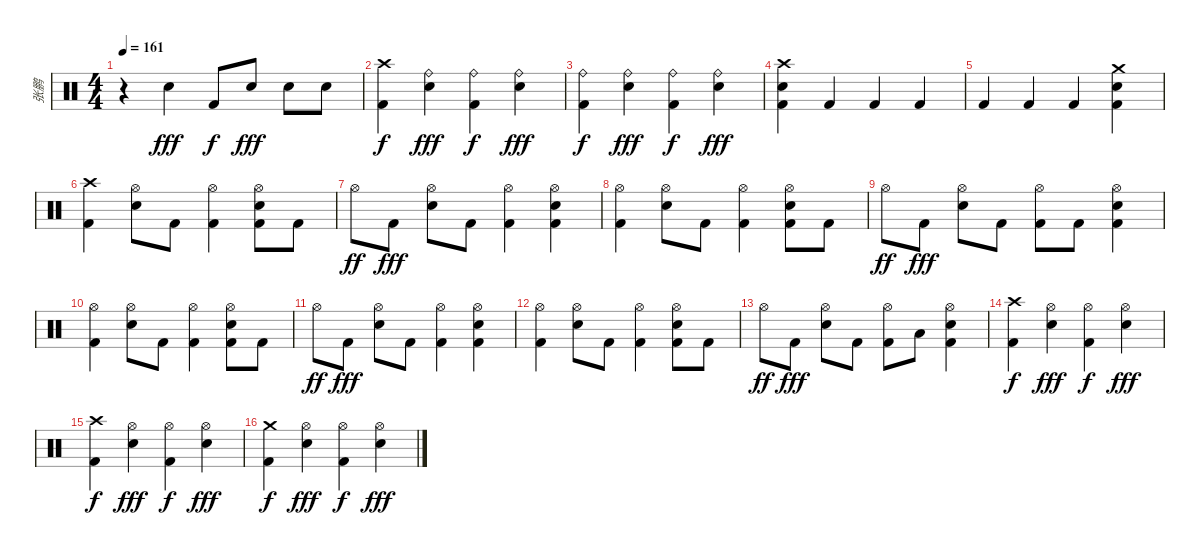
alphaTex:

\track ("张鹏" "张鹏") {instrument percussion}
\staff {score}
\articulation defaults
\ts (4 4)
\tempo 161
\clef neutral
\ks c
r.4{dy fff} "Electric Snare (hit)".4 "Kick (hit) 2".8{dy f} "Electric Snare (hit)".8{dy fff} "Electric Snare (hit)".8 "Electric Snare (hit)".8 |
("Crash high (hit)" "Kick (hit) 2").4{dy f} ("Ride (bell)" "Electric Snare (hit)").4{dy fff} ("Ride (bell)" "Kick (hit) 2").4{dy f} ("Ride (bell)" "Electric Snare (hit)").4{dy fff} |
("Ride (bell)" "Kick (hit) 2").4{dy f} ("Ride (bell)" "Electric Snare (hit)").4{dy fff} ("Ride (bell)" "Kick (hit) 2").4{dy f} ("Ride (bell)" "Electric Snare (hit)").4{dy fff} |
("Crash high (hit)" "Electric Snare (hit)" "Kick (hit) 2").4 "Kick (hit) 2".4 "Kick (hit) 2".4 "Kick (hit) 2".4 |
"Kick (hit) 2".4 "Kick (hit) 2".4 "Kick (hit) 2".4 ("Crash medium (hit)" "Electric Snare (hit)" "Kick (hit) 2").4 |
("Crash high (hit)" "Kick (hit) 2").4 ("Hi-Hat (open)" "Electric Snare (hit)").8 "Kick (hit) 2".8 ("Hi-Hat (open)" "Kick (hit) 2").4 ("Hi-Hat (open)" "Electric Snare (hit)" "Kick (hit) 2").8 "Kick (hit) 2".8 |
"Hi-Hat (open)".8{dy ff} "Kick (hit) 2".8{dy fff} ("Hi-Hat (open)" "Electric Snare (hit)").8 "Kick (hit) 2".8 ("Hi-Hat (open)" "Kick (hit) 2").4 ("Hi-Hat (open)" "Electric Snare (hit)" "Kick (hit) 2").4 |
("Hi-Hat (open)" "Kick (hit) 2").4 ("Hi-Hat (open)" "Electric Snare (hit)").8 "Kick (hit) 2".8 ("Hi-Hat (open)" "Kick (hit) 2").4 ("Hi-Hat (open)" "Electric Snare (hit)" "Kick (hit) 2").8 "Kick (hit) 2".8 |
"Hi-Hat (open)".8{dy ff} "Kick (hit) 2".8{dy fff} ("Hi-Hat (open)" "Electric Snare (hit)").8 "Kick (hit) 2".8 ("Hi-Hat (open)" "Kick (hit) 2").8 "Kick (hit) 2".8 ("Hi-Hat (open)" "Electric Snare (hit)" "Kick (hit) 2").4 |
("Hi-Hat (open)" "Kick (hit) 2").4 ("Hi-Hat (open)" "Electric Snare (hit)").8 "Kick (hit) 2".8 ("Hi-Hat (open)" "Kick (hit) 2").4 ("Hi-Hat (open)" "Electric Snare (hit)" "Kick (hit) 2").8 "Kick (hit) 2".8 |
"Hi-Hat (open)".8{dy ff} "Kick (hit) 2".8{dy fff} ("Hi-Hat (open)" "Electric Snare (hit)").8 "Kick (hit) 2".8 ("Hi-Hat (open)" "Kick (hit) 2").4 ("Hi-Hat (open)" "Electric Snare (hit)" "Kick (hit) 2").4 |
("Hi-Hat (open)" "Kick (hit) 2").4 ("Hi-Hat (open)" "Electric Snare (hit)").8 "Kick (hit) 2".8 ("Hi-Hat (open)" "Kick (hit) 2").4 ("Hi-Hat (open)" "Electric Snare (hit)" "Kick (hit) 2").8 "Kick (hit) 2".8 |
"Hi-Hat (open)".8{dy ff} "Kick (hit) 2".8{dy fff} ("Hi-Hat (open)" "Electric Snare (hit)").8 "Kick (hit) 2".8 ("Hi-Hat (open)" "Kick (hit) 2").8 "Low Tom (hit)".8 ("Hi-Hat (open)" "Electric Snare (hit)" "Kick (hit) 2").4 |
("Crash high (hit)" "Kick (hit) 2").4{dy f} ("Hi-Hat (open)" "Electric Snare (hit)").4{dy fff} ("Hi-Hat (open)" "Kick (hit) 2").4{dy f} ("Hi-Hat (open)" "Electric Snare (hit)").4{dy fff} |
("Crash high (hit)" "Kick (hit) 2").4{dy f} ("Hi-Hat (open)" "Electric Snare (hit)").4{dy fff} ("Hi-Hat (open)" "Kick (hit) 2").4{dy f} ("Hi-Hat (open)" "Electric Snare (hit)").4{dy fff} |
("Crash medium (hit)" "Kick (hit) 2").4{dy f} ("Hi-Hat (open)" "Electric Snare (hit)").4{dy fff} ("Hi-Hat (open)" "Kick (hit) 2").4{dy f} ("Hi-Hat (open)" "Electric Snare (hit)").4{dy fff}
